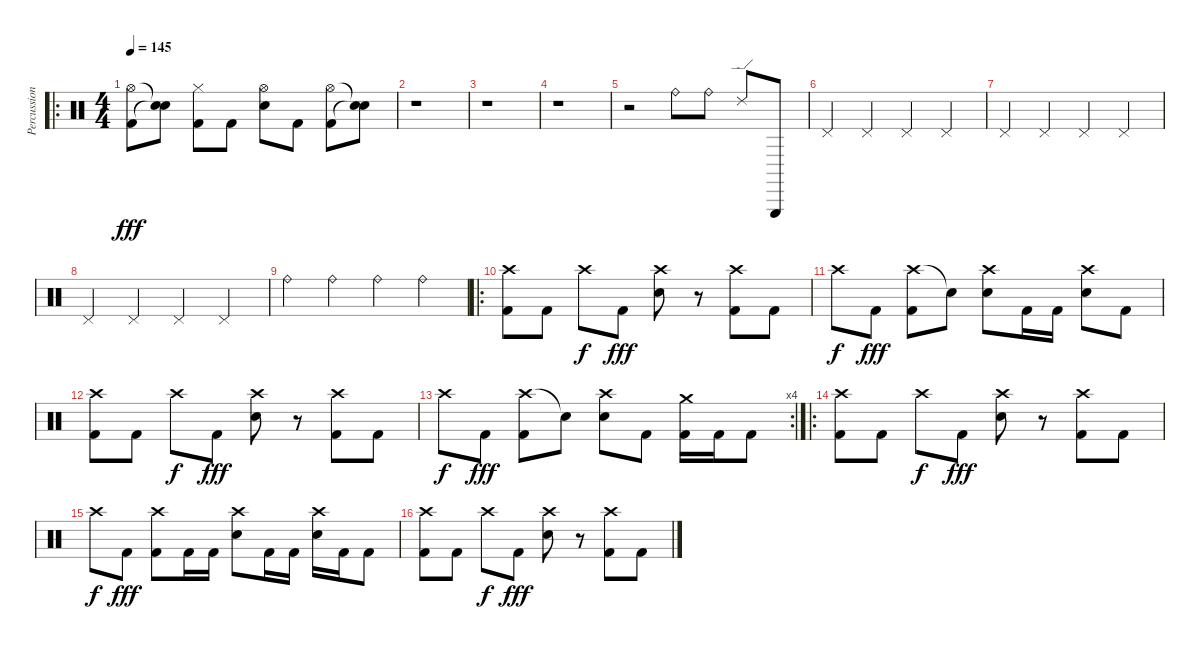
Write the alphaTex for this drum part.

\track ("Percussion" "Percussion") {instrument percussion}
\staff {score}
\articulation defaults
\ro
\ts (4 4)
\tempo 145
\clef neutral
\ks c
("Hi-Hat (open)" "Kick (hit) 2").8{dy fff} ("Snare (hit)"{t} "Snare (hit)"{t}).8 ("Hi-Hat (closed)" "Kick (hit) 2").8 "Kick (hit) 2".8 ("Hi-Hat (open)" "Electric Snare (hit)").8 "Kick (hit) 2".8 ("Hi-Hat (open)" "Kick (hit) 2").8 ("Snare (hit)"{t} "Snare (hit)"{t}).8 |
r.1 |
r.1 |
r.1 |
r.2 "Ride (bell)".8 "Ride (bell)".8 "Ride (edge) 2".8 "Triangle (hit)".8 |
"Pedal Hi-Hat (hit)".4 "Pedal Hi-Hat (hit)".4 "Pedal Hi-Hat (hit)".4 "Pedal Hi-Hat (hit)".4 |
"Pedal Hi-Hat (hit)".4 "Pedal Hi-Hat (hit)".4 "Pedal Hi-Hat (hit)".4 "Pedal Hi-Hat (hit)".4 |
"Pedal Hi-Hat (hit)".4 "Pedal Hi-Hat (hit)".4 "Pedal Hi-Hat (hit)".4 "Pedal Hi-Hat (hit)".4 |
"Ride (bell)".4 "Ride (bell)".4 "Ride (bell)".4 "Ride (bell)".4 |
\ro
("Crash high (hit)" "Kick (hit) 2").8 "Kick (hit) 2".8 "Crash high (hit)".8{dy f} "Kick (hit) 2".8{dy fff} ("Crash high (hit)" "Electric Snare (hit)").8 r.8 ("Crash high (hit)" "Kick (hit) 2").8 "Kick (hit) 2".8 |
"Crash high (hit)".8{dy f} "Kick (hit) 2".8{dy fff} ("Crash high (hit)" "Kick (hit) 2").8 "Snare (hit)"{t}.8 ("Crash high (hit)" "Electric Snare (hit)").8 "Kick (hit) 2".16 "Kick (hit) 2".16 ("Crash high (hit)" "Electric Snare (hit)").8 "Kick (hit) 2".8 |
("Crash high (hit)" "Kick (hit) 2").8 "Kick (hit) 2".8 "Crash high (hit)".8{dy f} "Kick (hit) 2".8{dy fff} ("Crash high (hit)" "Electric Snare (hit)").8 r.8 ("Crash high (hit)" "Kick (hit) 2").8 "Kick (hit) 2".8 |
\rc 4 "Crash high (hit)".8{dy f} "Kick (hit) 2".8{dy fff}
("Crash high (hit)" "Kick (hit) 2").8 "Snare (hit)"{t}.8 ("Crash high (hit)" "Electric Snare (hit)").8 "Kick (hit) 2".8 ("Crash medium (hit)" "Kick (hit) 2").16 "Kick (hit) 2".16 "Kick (hit) 2".8 |
\ro
("Crash high (hit)" "Kick (hit) 2").8 "Kick (hit) 2".8 "Crash high (hit)".8{dy f} "Kick (hit) 2".8{dy fff} ("Crash high (hit)" "Electric Snare (hit)").8 r.8 ("Crash high (hit)" "Kick (hit) 2").8 "Kick (hit) 2".8 |
"Crash high (hit)".8{dy f} "Kick (hit) 2".8{dy fff} ("Crash high (hit)" "Kick (hit) 2").8 "Kick (hit) 2".16 "Kick (hit) 2".16 ("Crash high (hit)" "Electric Snare (hit)").8 "Kick (hit) 2".16 "Kick (hit) 2".16 ("Crash high (hit)" "Electric Snare (hit)").16 "Kick (hit) 2".16 "Kick (hit) 2".8 |
("Crash high (hit)" "Kick (hit) 2").8 "Kick (hit) 2".8 "Crash high (hit)".8{dy f} "Kick (hit) 2".8{dy fff} ("Crash high (hit)" "Electric Snare (hit)").8 r.8 ("Crash high (hit)" "Kick (hit) 2").8 "Kick (hit) 2".8
